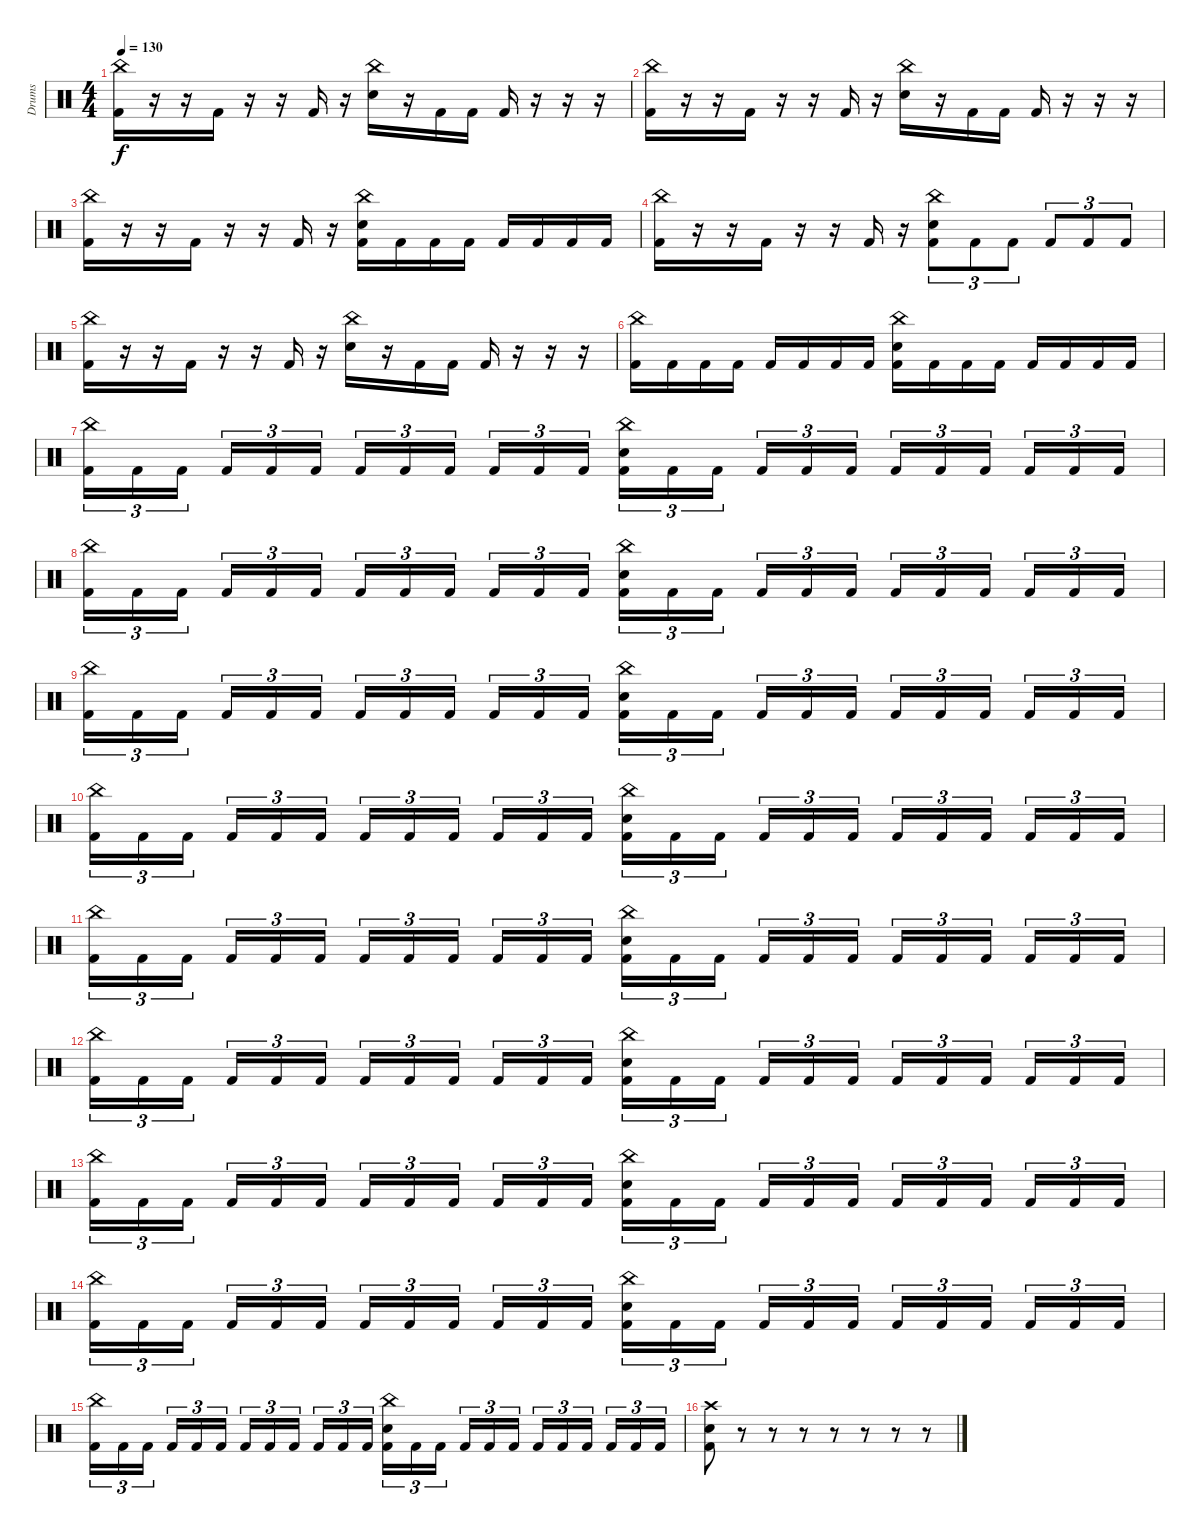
\track ("Drums" "Drums") {instrument percussion}
\staff {score}
\articulation defaults
\ts (4 4)
\tempo 130
\clef neutral
\ks c
("China (hit)" "Kick (hit) 2").16{dy f} r.16 r.16 "Kick (hit) 2".16 r.16 r.16 "Kick (hit) 2".16 r.16 ("China (hit)" "Snare (hit) 2").16 r.16 "Kick (hit) 2".16 "Kick (hit) 2".16 "Kick (hit) 2".16 r.16 r.16 r.16 |
("China (hit)" "Kick (hit) 2").16 r.16 r.16 "Kick (hit) 2".16 r.16 r.16 "Kick (hit) 2".16 r.16 ("China (hit)" "Snare (hit) 2").16 r.16 "Kick (hit) 2".16 "Kick (hit) 2".16 "Kick (hit) 2".16 r.16 r.16 r.16 |
("China (hit)" "Kick (hit) 2").16 r.16 r.16 "Kick (hit) 2".16 r.16 r.16 "Kick (hit) 2".16 r.16 ("China (hit)" "Snare (hit) 2" "Kick (hit) 2").16 "Kick (hit) 2".16 "Kick (hit) 2".16 "Kick (hit) 2".16 "Kick (hit) 2".16 "Kick (hit) 2".16 "Kick (hit) 2".16 "Kick (hit) 2".16 |
("China (hit)" "Kick (hit) 2").16 r.16 r.16 "Kick (hit) 2".16 r.16 r.16 "Kick (hit) 2".16 r.16 ("China (hit)" "Snare (hit) 2" "Kick (hit) 2").8{tu (3 2)} "Kick (hit) 2".8{tu (3 2)} "Kick (hit) 2".8{tu (3 2)} "Kick (hit) 2".8{tu (3 2)} "Kick (hit) 2".8{tu (3 2)} "Kick (hit) 2".8{tu (3 2)} |
("China (hit)" "Kick (hit) 2").16 r.16 r.16 "Kick (hit) 2".16 r.16 r.16 "Kick (hit) 2".16 r.16 ("China (hit)" "Snare (hit) 2").16 r.16 "Kick (hit) 2".16 "Kick (hit) 2".16 "Kick (hit) 2".16 r.16 r.16 r.16 |
("China (hit)" "Kick (hit) 2").16 "Kick (hit) 2".16 "Kick (hit) 2".16 "Kick (hit) 2".16 "Kick (hit) 2".16 "Kick (hit) 2".16 "Kick (hit) 2".16 "Kick (hit) 2".16 ("China (hit)" "Snare (hit) 2" "Kick (hit) 2").16 "Kick (hit) 2".16 "Kick (hit) 2".16 "Kick (hit) 2".16 "Kick (hit) 2".16 "Kick (hit) 2".16 "Kick (hit) 2".16 "Kick (hit) 2".16 |
("China (hit)" "Kick (hit) 2").16{tu (3 2)} "Kick (hit) 2".16{tu (3 2)} "Kick (hit) 2".16{tu (3 2) beam splitsecondary} "Kick (hit) 2".16{tu (3 2)} "Kick (hit) 2".16{tu (3 2)} "Kick (hit) 2".16{tu (3 2)} "Kick (hit) 2".16{tu (3 2)} "Kick (hit) 2".16{tu (3 2)} "Kick (hit) 2".16{tu (3 2) beam splitsecondary} "Kick (hit) 2".16{tu (3 2)} "Kick (hit) 2".16{tu (3 2)} "Kick (hit) 2".16{tu (3 2)} ("China (hit)" "Snare (hit) 2" "Kick (hit) 2").16{tu (3 2)} "Kick (hit) 2".16{tu (3 2)} "Kick (hit) 2".16{tu (3 2) beam splitsecondary} "Kick (hit) 2".16{tu (3 2)} "Kick (hit) 2".16{tu (3 2)} "Kick (hit) 2".16{tu (3 2)} "Kick (hit) 2".16{tu (3 2)} "Kick (hit) 2".16{tu (3 2)} "Kick (hit) 2".16{tu (3 2) beam splitsecondary} "Kick (hit) 2".16{tu (3 2)} "Kick (hit) 2".16{tu (3 2)} "Kick (hit) 2".16{tu (3 2)} |
("China (hit)" "Kick (hit) 2").16{tu (3 2)} "Kick (hit) 2".16{tu (3 2)} "Kick (hit) 2".16{tu (3 2) beam splitsecondary} "Kick (hit) 2".16{tu (3 2)} "Kick (hit) 2".16{tu (3 2)} "Kick (hit) 2".16{tu (3 2)} "Kick (hit) 2".16{tu (3 2)} "Kick (hit) 2".16{tu (3 2)} "Kick (hit) 2".16{tu (3 2) beam splitsecondary} "Kick (hit) 2".16{tu (3 2)} "Kick (hit) 2".16{tu (3 2)} "Kick (hit) 2".16{tu (3 2)} ("China (hit)" "Snare (hit) 2" "Kick (hit) 2").16{tu (3 2)} "Kick (hit) 2".16{tu (3 2)} "Kick (hit) 2".16{tu (3 2) beam splitsecondary} "Kick (hit) 2".16{tu (3 2)} "Kick (hit) 2".16{tu (3 2)} "Kick (hit) 2".16{tu (3 2)} "Kick (hit) 2".16{tu (3 2)} "Kick (hit) 2".16{tu (3 2)} "Kick (hit) 2".16{tu (3 2) beam splitsecondary} "Kick (hit) 2".16{tu (3 2)} "Kick (hit) 2".16{tu (3 2)} "Kick (hit) 2".16{tu (3 2)} |
("China (hit)" "Kick (hit) 2").16{tu (3 2)} "Kick (hit) 2".16{tu (3 2)} "Kick (hit) 2".16{tu (3 2) beam splitsecondary} "Kick (hit) 2".16{tu (3 2)} "Kick (hit) 2".16{tu (3 2)} "Kick (hit) 2".16{tu (3 2)} "Kick (hit) 2".16{tu (3 2)} "Kick (hit) 2".16{tu (3 2)} "Kick (hit) 2".16{tu (3 2) beam splitsecondary} "Kick (hit) 2".16{tu (3 2)} "Kick (hit) 2".16{tu (3 2)} "Kick (hit) 2".16{tu (3 2)} ("China (hit)" "Snare (hit) 2" "Kick (hit) 2").16{tu (3 2)} "Kick (hit) 2".16{tu (3 2)} "Kick (hit) 2".16{tu (3 2) beam splitsecondary} "Kick (hit) 2".16{tu (3 2)} "Kick (hit) 2".16{tu (3 2)} "Kick (hit) 2".16{tu (3 2)} "Kick (hit) 2".16{tu (3 2)} "Kick (hit) 2".16{tu (3 2)} "Kick (hit) 2".16{tu (3 2) beam splitsecondary} "Kick (hit) 2".16{tu (3 2)} "Kick (hit) 2".16{tu (3 2)} "Kick (hit) 2".16{tu (3 2)} |
("China (hit)" "Kick (hit) 2").16{tu (3 2)} "Kick (hit) 2".16{tu (3 2)} "Kick (hit) 2".16{tu (3 2) beam splitsecondary} "Kick (hit) 2".16{tu (3 2)} "Kick (hit) 2".16{tu (3 2)} "Kick (hit) 2".16{tu (3 2)} "Kick (hit) 2".16{tu (3 2)} "Kick (hit) 2".16{tu (3 2)} "Kick (hit) 2".16{tu (3 2) beam splitsecondary} "Kick (hit) 2".16{tu (3 2)} "Kick (hit) 2".16{tu (3 2)} "Kick (hit) 2".16{tu (3 2)} ("China (hit)" "Snare (hit) 2" "Kick (hit) 2").16{tu (3 2)} "Kick (hit) 2".16{tu (3 2)} "Kick (hit) 2".16{tu (3 2) beam splitsecondary} "Kick (hit) 2".16{tu (3 2)} "Kick (hit) 2".16{tu (3 2)} "Kick (hit) 2".16{tu (3 2)} "Kick (hit) 2".16{tu (3 2)} "Kick (hit) 2".16{tu (3 2)} "Kick (hit) 2".16{tu (3 2) beam splitsecondary} "Kick (hit) 2".16{tu (3 2)} "Kick (hit) 2".16{tu (3 2)} "Kick (hit) 2".16{tu (3 2)} |
("China (hit)" "Kick (hit) 2").16{tu (3 2)} "Kick (hit) 2".16{tu (3 2)} "Kick (hit) 2".16{tu (3 2) beam splitsecondary} "Kick (hit) 2".16{tu (3 2)} "Kick (hit) 2".16{tu (3 2)} "Kick (hit) 2".16{tu (3 2)} "Kick (hit) 2".16{tu (3 2)} "Kick (hit) 2".16{tu (3 2)} "Kick (hit) 2".16{tu (3 2) beam splitsecondary} "Kick (hit) 2".16{tu (3 2)} "Kick (hit) 2".16{tu (3 2)} "Kick (hit) 2".16{tu (3 2)} ("China (hit)" "Snare (hit) 2" "Kick (hit) 2").16{tu (3 2)} "Kick (hit) 2".16{tu (3 2)} "Kick (hit) 2".16{tu (3 2) beam splitsecondary} "Kick (hit) 2".16{tu (3 2)} "Kick (hit) 2".16{tu (3 2)} "Kick (hit) 2".16{tu (3 2)} "Kick (hit) 2".16{tu (3 2)} "Kick (hit) 2".16{tu (3 2)} "Kick (hit) 2".16{tu (3 2) beam splitsecondary} "Kick (hit) 2".16{tu (3 2)} "Kick (hit) 2".16{tu (3 2)} "Kick (hit) 2".16{tu (3 2)} |
("China (hit)" "Kick (hit) 2").16{tu (3 2)} "Kick (hit) 2".16{tu (3 2)} "Kick (hit) 2".16{tu (3 2) beam splitsecondary} "Kick (hit) 2".16{tu (3 2)} "Kick (hit) 2".16{tu (3 2)} "Kick (hit) 2".16{tu (3 2)} "Kick (hit) 2".16{tu (3 2)} "Kick (hit) 2".16{tu (3 2)} "Kick (hit) 2".16{tu (3 2) beam splitsecondary} "Kick (hit) 2".16{tu (3 2)} "Kick (hit) 2".16{tu (3 2)} "Kick (hit) 2".16{tu (3 2)} ("China (hit)" "Snare (hit) 2" "Kick (hit) 2").16{tu (3 2)} "Kick (hit) 2".16{tu (3 2)} "Kick (hit) 2".16{tu (3 2) beam splitsecondary} "Kick (hit) 2".16{tu (3 2)} "Kick (hit) 2".16{tu (3 2)} "Kick (hit) 2".16{tu (3 2)} "Kick (hit) 2".16{tu (3 2)} "Kick (hit) 2".16{tu (3 2)} "Kick (hit) 2".16{tu (3 2) beam splitsecondary} "Kick (hit) 2".16{tu (3 2)} "Kick (hit) 2".16{tu (3 2)} "Kick (hit) 2".16{tu (3 2)} |
("China (hit)" "Kick (hit) 2").16{tu (3 2)} "Kick (hit) 2".16{tu (3 2)} "Kick (hit) 2".16{tu (3 2) beam splitsecondary} "Kick (hit) 2".16{tu (3 2)} "Kick (hit) 2".16{tu (3 2)} "Kick (hit) 2".16{tu (3 2)} "Kick (hit) 2".16{tu (3 2)} "Kick (hit) 2".16{tu (3 2)} "Kick (hit) 2".16{tu (3 2) beam splitsecondary} "Kick (hit) 2".16{tu (3 2)} "Kick (hit) 2".16{tu (3 2)} "Kick (hit) 2".16{tu (3 2)} ("China (hit)" "Snare (hit) 2" "Kick (hit) 2").16{tu (3 2)} "Kick (hit) 2".16{tu (3 2)} "Kick (hit) 2".16{tu (3 2) beam splitsecondary} "Kick (hit) 2".16{tu (3 2)} "Kick (hit) 2".16{tu (3 2)} "Kick (hit) 2".16{tu (3 2)} "Kick (hit) 2".16{tu (3 2)} "Kick (hit) 2".16{tu (3 2)} "Kick (hit) 2".16{tu (3 2) beam splitsecondary} "Kick (hit) 2".16{tu (3 2)} "Kick (hit) 2".16{tu (3 2)} "Kick (hit) 2".16{tu (3 2)} |
("China (hit)" "Kick (hit) 2").16{tu (3 2)} "Kick (hit) 2".16{tu (3 2)} "Kick (hit) 2".16{tu (3 2) beam splitsecondary} "Kick (hit) 2".16{tu (3 2)} "Kick (hit) 2".16{tu (3 2)} "Kick (hit) 2".16{tu (3 2)} "Kick (hit) 2".16{tu (3 2)} "Kick (hit) 2".16{tu (3 2)} "Kick (hit) 2".16{tu (3 2) beam splitsecondary} "Kick (hit) 2".16{tu (3 2)} "Kick (hit) 2".16{tu (3 2)} "Kick (hit) 2".16{tu (3 2)} ("China (hit)" "Snare (hit) 2" "Kick (hit) 2").16{tu (3 2)} "Kick (hit) 2".16{tu (3 2)} "Kick (hit) 2".16{tu (3 2) beam splitsecondary} "Kick (hit) 2".16{tu (3 2)} "Kick (hit) 2".16{tu (3 2)} "Kick (hit) 2".16{tu (3 2)} "Kick (hit) 2".16{tu (3 2)} "Kick (hit) 2".16{tu (3 2)} "Kick (hit) 2".16{tu (3 2) beam splitsecondary} "Kick (hit) 2".16{tu (3 2)} "Kick (hit) 2".16{tu (3 2)} "Kick (hit) 2".16{tu (3 2)} |
("China (hit)" "Kick (hit) 2").16{tu (3 2)} "Kick (hit) 2".16{tu (3 2)} "Kick (hit) 2".16{tu (3 2) beam splitsecondary} "Kick (hit) 2".16{tu (3 2)} "Kick (hit) 2".16{tu (3 2)} "Kick (hit) 2".16{tu (3 2)} "Kick (hit) 2".16{tu (3 2)} "Kick (hit) 2".16{tu (3 2)} "Kick (hit) 2".16{tu (3 2) beam splitsecondary} "Kick (hit) 2".16{tu (3 2)} "Kick (hit) 2".16{tu (3 2)} "Kick (hit) 2".16{tu (3 2)} ("China (hit)" "Snare (hit) 2" "Kick (hit) 2").16{tu (3 2)} "Kick (hit) 2".16{tu (3 2)} "Kick (hit) 2".16{tu (3 2) beam splitsecondary} "Kick (hit) 2".16{tu (3 2)} "Kick (hit) 2".16{tu (3 2)} "Kick (hit) 2".16{tu (3 2)} "Kick (hit) 2".16{tu (3 2)} "Kick (hit) 2".16{tu (3 2)} "Kick (hit) 2".16{tu (3 2) beam splitsecondary} "Kick (hit) 2".16{tu (3 2)} "Kick (hit) 2".16{tu (3 2)} "Kick (hit) 2".16{tu (3 2)} |
("Crash high (hit)" "Snare (hit) 2" "Kick (hit) 2").8 r.8 r.8 r.8 r.8 r.8 r.8 r.8
